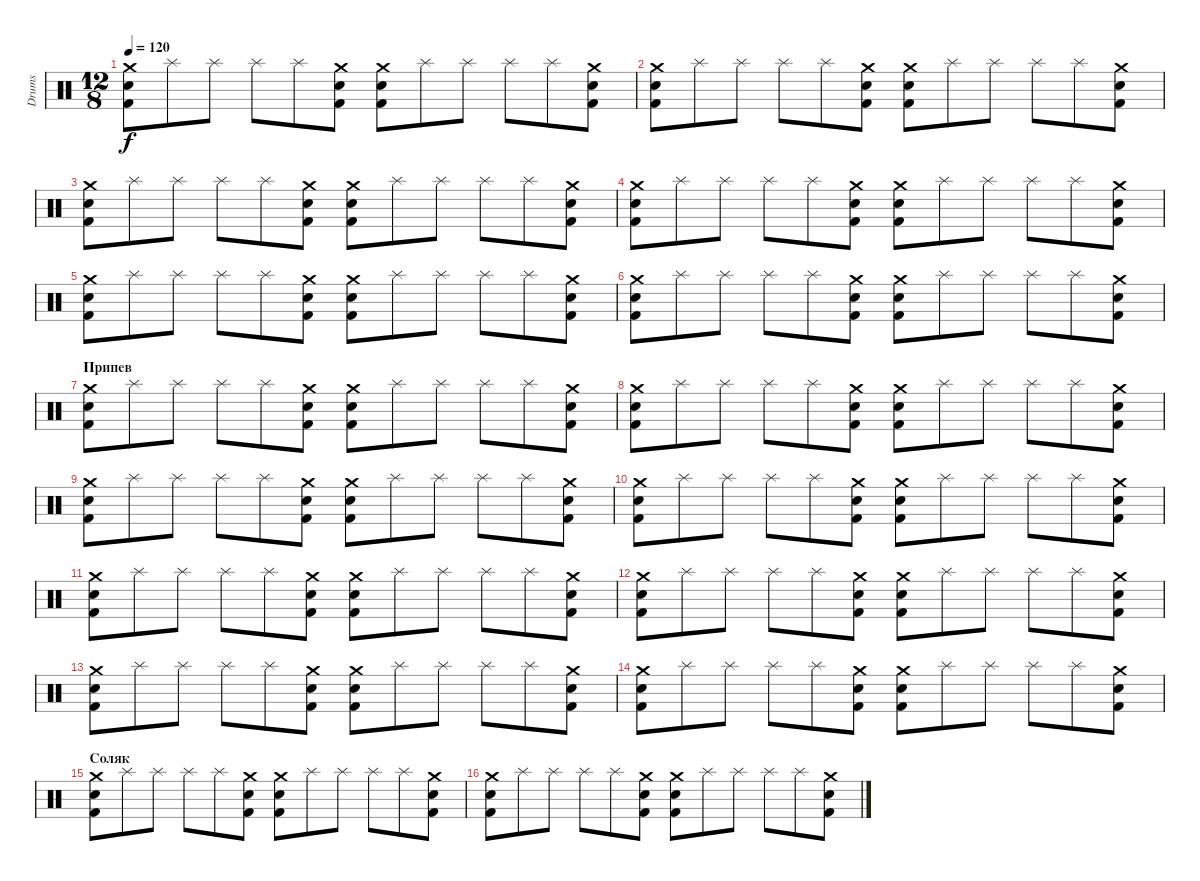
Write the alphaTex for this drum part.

\track ("Drums" "Drums") {instrument percussion}
\staff {score}
\articulation defaults
\ts (12 8)
\tempo 120
\clef neutral
\ks c
("Crash medium (hit)" "Snare (hit) 2" "Kick (hit) 2").8{dy f} "Splash (hit)".8 "Splash (hit)".8 "Splash (hit)".8 "Splash (hit)".8 ("Crash medium (hit)" "Snare (hit) 2" "Kick (hit) 2").8 ("Crash medium (hit)" "Snare (hit) 2" "Kick (hit) 2").8 "Splash (hit)".8 "Splash (hit)".8 "Splash (hit)".8 "Splash (hit)".8 ("Crash medium (hit)" "Snare (hit) 2" "Kick (hit) 2").8 |
("Crash medium (hit)" "Snare (hit) 2" "Kick (hit) 2").8 "Splash (hit)".8 "Splash (hit)".8 "Splash (hit)".8 "Splash (hit)".8 ("Crash medium (hit)" "Snare (hit) 2" "Kick (hit) 2").8 ("Crash medium (hit)" "Snare (hit) 2" "Kick (hit) 2").8 "Splash (hit)".8 "Splash (hit)".8 "Splash (hit)".8 "Splash (hit)".8 ("Crash medium (hit)" "Snare (hit) 2" "Kick (hit) 2").8 |
("Crash medium (hit)" "Snare (hit) 2" "Kick (hit) 2").8 "Splash (hit)".8 "Splash (hit)".8 "Splash (hit)".8 "Splash (hit)".8 ("Crash medium (hit)" "Snare (hit) 2" "Kick (hit) 2").8 ("Crash medium (hit)" "Snare (hit) 2" "Kick (hit) 2").8 "Splash (hit)".8 "Splash (hit)".8 "Splash (hit)".8 "Splash (hit)".8 ("Crash medium (hit)" "Snare (hit) 2" "Kick (hit) 2").8 |
("Crash medium (hit)" "Snare (hit) 2" "Kick (hit) 2").8 "Splash (hit)".8 "Splash (hit)".8 "Splash (hit)".8 "Splash (hit)".8 ("Crash medium (hit)" "Snare (hit) 2" "Kick (hit) 2").8 ("Crash medium (hit)" "Snare (hit) 2" "Kick (hit) 2").8 "Splash (hit)".8 "Splash (hit)".8 "Splash (hit)".8 "Splash (hit)".8 ("Crash medium (hit)" "Snare (hit) 2" "Kick (hit) 2").8 |
("Crash medium (hit)" "Snare (hit) 2" "Kick (hit) 2").8 "Splash (hit)".8 "Splash (hit)".8 "Splash (hit)".8 "Splash (hit)".8 ("Crash medium (hit)" "Snare (hit) 2" "Kick (hit) 2").8 ("Crash medium (hit)" "Snare (hit) 2" "Kick (hit) 2").8 "Splash (hit)".8 "Splash (hit)".8 "Splash (hit)".8 "Splash (hit)".8 ("Crash medium (hit)" "Snare (hit) 2" "Kick (hit) 2").8 |
("Crash medium (hit)" "Snare (hit) 2" "Kick (hit) 2").8 "Splash (hit)".8 "Splash (hit)".8 "Splash (hit)".8 "Splash (hit)".8 ("Crash medium (hit)" "Snare (hit) 2" "Kick (hit) 2").8 ("Crash medium (hit)" "Snare (hit) 2" "Kick (hit) 2").8 "Splash (hit)".8 "Splash (hit)".8 "Splash (hit)".8 "Splash (hit)".8 ("Crash medium (hit)" "Snare (hit) 2" "Kick (hit) 2").8 |
\section ("" "Припев")
("Crash medium (hit)" "Snare (hit) 2" "Kick (hit) 2").8 "Splash (hit)".8 "Splash (hit)".8 "Splash (hit)".8 "Splash (hit)".8 ("Crash medium (hit)" "Snare (hit) 2" "Kick (hit) 2").8 ("Crash medium (hit)" "Snare (hit) 2" "Kick (hit) 2").8 "Splash (hit)".8 "Splash (hit)".8 "Splash (hit)".8 "Splash (hit)".8 ("Crash medium (hit)" "Snare (hit) 2" "Kick (hit) 2").8 |
("Crash medium (hit)" "Snare (hit) 2" "Kick (hit) 2").8 "Splash (hit)".8 "Splash (hit)".8 "Splash (hit)".8 "Splash (hit)".8 ("Crash medium (hit)" "Snare (hit) 2" "Kick (hit) 2").8 ("Crash medium (hit)" "Snare (hit) 2" "Kick (hit) 2").8 "Splash (hit)".8 "Splash (hit)".8 "Splash (hit)".8 "Splash (hit)".8 ("Crash medium (hit)" "Snare (hit) 2" "Kick (hit) 2").8 |
("Crash medium (hit)" "Snare (hit) 2" "Kick (hit) 2").8 "Splash (hit)".8 "Splash (hit)".8 "Splash (hit)".8 "Splash (hit)".8 ("Crash medium (hit)" "Snare (hit) 2" "Kick (hit) 2").8 ("Crash medium (hit)" "Snare (hit) 2" "Kick (hit) 2").8 "Splash (hit)".8 "Splash (hit)".8 "Splash (hit)".8 "Splash (hit)".8 ("Crash medium (hit)" "Snare (hit) 2" "Kick (hit) 2").8 |
("Crash medium (hit)" "Snare (hit) 2" "Kick (hit) 2").8 "Splash (hit)".8 "Splash (hit)".8 "Splash (hit)".8 "Splash (hit)".8 ("Crash medium (hit)" "Snare (hit) 2" "Kick (hit) 2").8 ("Crash medium (hit)" "Snare (hit) 2" "Kick (hit) 2").8 "Splash (hit)".8 "Splash (hit)".8 "Splash (hit)".8 "Splash (hit)".8 ("Crash medium (hit)" "Snare (hit) 2" "Kick (hit) 2").8 |
("Crash medium (hit)" "Snare (hit) 2" "Kick (hit) 2").8 "Splash (hit)".8 "Splash (hit)".8 "Splash (hit)".8 "Splash (hit)".8 ("Crash medium (hit)" "Snare (hit) 2" "Kick (hit) 2").8 ("Crash medium (hit)" "Snare (hit) 2" "Kick (hit) 2").8 "Splash (hit)".8 "Splash (hit)".8 "Splash (hit)".8 "Splash (hit)".8 ("Crash medium (hit)" "Snare (hit) 2" "Kick (hit) 2").8 |
("Crash medium (hit)" "Snare (hit) 2" "Kick (hit) 2").8 "Splash (hit)".8 "Splash (hit)".8 "Splash (hit)".8 "Splash (hit)".8 ("Crash medium (hit)" "Snare (hit) 2" "Kick (hit) 2").8 ("Crash medium (hit)" "Snare (hit) 2" "Kick (hit) 2").8 "Splash (hit)".8 "Splash (hit)".8 "Splash (hit)".8 "Splash (hit)".8 ("Crash medium (hit)" "Snare (hit) 2" "Kick (hit) 2").8 |
("Crash medium (hit)" "Snare (hit) 2" "Kick (hit) 2").8 "Splash (hit)".8 "Splash (hit)".8 "Splash (hit)".8 "Splash (hit)".8 ("Crash medium (hit)" "Snare (hit) 2" "Kick (hit) 2").8 ("Crash medium (hit)" "Snare (hit) 2" "Kick (hit) 2").8 "Splash (hit)".8 "Splash (hit)".8 "Splash (hit)".8 "Splash (hit)".8 ("Crash medium (hit)" "Snare (hit) 2" "Kick (hit) 2").8 |
("Crash medium (hit)" "Snare (hit) 2" "Kick (hit) 2").8 "Splash (hit)".8 "Splash (hit)".8 "Splash (hit)".8 "Splash (hit)".8 ("Crash medium (hit)" "Snare (hit) 2" "Kick (hit) 2").8 ("Crash medium (hit)" "Snare (hit) 2" "Kick (hit) 2").8 "Splash (hit)".8 "Splash (hit)".8 "Splash (hit)".8 "Splash (hit)".8 ("Crash medium (hit)" "Snare (hit) 2" "Kick (hit) 2").8 |
\section ("" "Соляк")
("Crash medium (hit)" "Snare (hit) 2" "Kick (hit) 2").8 "Splash (hit)".8 "Splash (hit)".8 "Splash (hit)".8 "Splash (hit)".8 ("Crash medium (hit)" "Snare (hit) 2" "Kick (hit) 2").8 ("Crash medium (hit)" "Snare (hit) 2" "Kick (hit) 2").8 "Splash (hit)".8 "Splash (hit)".8 "Splash (hit)".8 "Splash (hit)".8 ("Crash medium (hit)" "Snare (hit) 2" "Kick (hit) 2").8 |
("Crash medium (hit)" "Snare (hit) 2" "Kick (hit) 2").8 "Splash (hit)".8 "Splash (hit)".8 "Splash (hit)".8 "Splash (hit)".8 ("Crash medium (hit)" "Snare (hit) 2" "Kick (hit) 2").8 ("Crash medium (hit)" "Snare (hit) 2" "Kick (hit) 2").8 "Splash (hit)".8 "Splash (hit)".8 "Splash (hit)".8 "Splash (hit)".8 ("Crash medium (hit)" "Snare (hit) 2" "Kick (hit) 2").8
